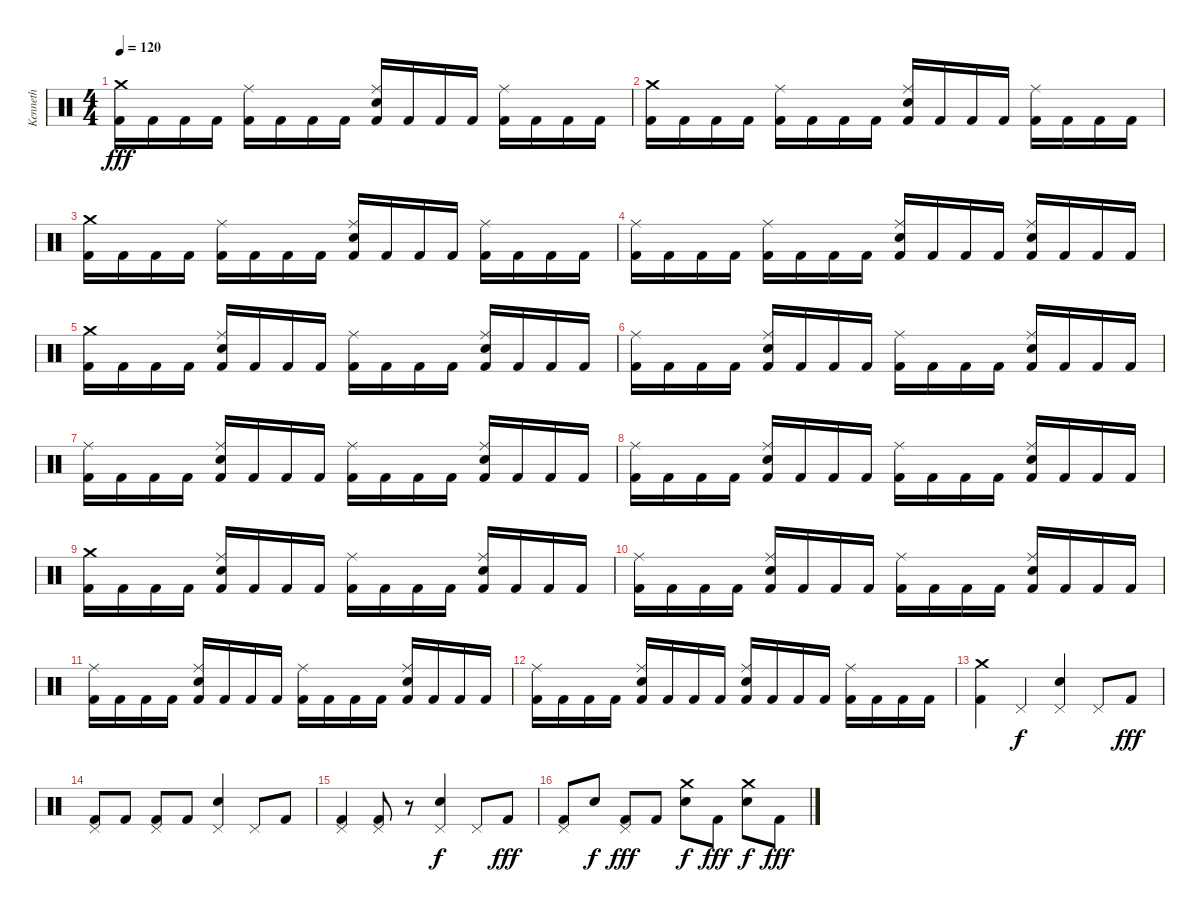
\track ("Kenneth" "Kenneth") {instrument percussion}
\staff {score}
\articulation defaults
\ts (4 4)
\tempo 120
\clef neutral
\ks c
("Crash medium (hit)" "Kick (hit) 2").16{dy fff} "Kick (hit) 2".16 "Kick (hit) 2".16 "Kick (hit) 2".16 ("Ride (middle)" "Kick (hit) 2").16 "Kick (hit) 2".16 "Kick (hit) 2".16 "Kick (hit) 2".16 ("Ride (middle)" "Electric Snare (hit)" "Kick (hit) 2").16 "Kick (hit) 2".16 "Kick (hit) 2".16 "Kick (hit) 2".16 ("Ride (middle)" "Kick (hit) 2").16 "Kick (hit) 2".16 "Kick (hit) 2".16 "Kick (hit) 2".16 |
("Crash medium (hit)" "Kick (hit) 2").16 "Kick (hit) 2".16 "Kick (hit) 2".16 "Kick (hit) 2".16 ("Ride (middle)" "Kick (hit) 2").16 "Kick (hit) 2".16 "Kick (hit) 2".16 "Kick (hit) 2".16 ("Ride (middle)" "Electric Snare (hit)" "Kick (hit) 2").16 "Kick (hit) 2".16 "Kick (hit) 2".16 "Kick (hit) 2".16 ("Ride (middle)" "Kick (hit) 2").16 "Kick (hit) 2".16 "Kick (hit) 2".16 "Kick (hit) 2".16 |
("Crash medium (hit)" "Kick (hit) 2").16 "Kick (hit) 2".16 "Kick (hit) 2".16 "Kick (hit) 2".16 ("Ride (middle)" "Kick (hit) 2").16 "Kick (hit) 2".16 "Kick (hit) 2".16 "Kick (hit) 2".16 ("Ride (middle)" "Electric Snare (hit)" "Kick (hit) 2").16 "Kick (hit) 2".16 "Kick (hit) 2".16 "Kick (hit) 2".16 ("Ride (middle)" "Kick (hit) 2").16 "Kick (hit) 2".16 "Kick (hit) 2".16 "Kick (hit) 2".16 |
("Ride (middle)" "Kick (hit) 2").16 "Kick (hit) 2".16 "Kick (hit) 2".16 "Kick (hit) 2".16 ("Ride (middle)" "Kick (hit) 2").16 "Kick (hit) 2".16 "Kick (hit) 2".16 "Kick (hit) 2".16 ("Ride (middle)" "Electric Snare (hit)" "Kick (hit) 2").16 "Kick (hit) 2".16 "Kick (hit) 2".16 "Kick (hit) 2".16 ("Ride (middle)" "Electric Snare (hit)" "Kick (hit) 2").16 "Kick (hit) 2".16 "Kick (hit) 2".16 "Kick (hit) 2".16 |
("Crash medium (hit)" "Kick (hit) 2").16 "Kick (hit) 2".16 "Kick (hit) 2".16 "Kick (hit) 2".16 ("Ride (middle)" "Electric Snare (hit)" "Kick (hit) 2").16 "Kick (hit) 2".16 "Kick (hit) 2".16 "Kick (hit) 2".16 ("Ride (middle)" "Kick (hit) 2").16 "Kick (hit) 2".16 "Kick (hit) 2".16 "Kick (hit) 2".16 ("Ride (middle)" "Electric Snare (hit)" "Kick (hit) 2").16 "Kick (hit) 2".16 "Kick (hit) 2".16 "Kick (hit) 2".16 |
("Ride (middle)" "Kick (hit) 2").16 "Kick (hit) 2".16 "Kick (hit) 2".16 "Kick (hit) 2".16 ("Ride (middle)" "Electric Snare (hit)" "Kick (hit) 2").16 "Kick (hit) 2".16 "Kick (hit) 2".16 "Kick (hit) 2".16 ("Ride (middle)" "Kick (hit) 2").16 "Kick (hit) 2".16 "Kick (hit) 2".16 "Kick (hit) 2".16 ("Ride (middle)" "Electric Snare (hit)" "Kick (hit) 2").16 "Kick (hit) 2".16 "Kick (hit) 2".16 "Kick (hit) 2".16 |
("Ride (middle)" "Kick (hit) 2").16 "Kick (hit) 2".16 "Kick (hit) 2".16 "Kick (hit) 2".16 ("Ride (middle)" "Electric Snare (hit)" "Kick (hit) 2").16 "Kick (hit) 2".16 "Kick (hit) 2".16 "Kick (hit) 2".16 ("Ride (middle)" "Kick (hit) 2").16 "Kick (hit) 2".16 "Kick (hit) 2".16 "Kick (hit) 2".16 ("Ride (middle)" "Electric Snare (hit)" "Kick (hit) 2").16 "Kick (hit) 2".16 "Kick (hit) 2".16 "Kick (hit) 2".16 |
("Ride (middle)" "Kick (hit) 2").16 "Kick (hit) 2".16 "Kick (hit) 2".16 "Kick (hit) 2".16 ("Ride (middle)" "Electric Snare (hit)" "Kick (hit) 2").16 "Kick (hit) 2".16 "Kick (hit) 2".16 "Kick (hit) 2".16 ("Ride (middle)" "Kick (hit) 2").16 "Kick (hit) 2".16 "Kick (hit) 2".16 "Kick (hit) 2".16 ("Ride (middle)" "Electric Snare (hit)" "Kick (hit) 2").16 "Kick (hit) 2".16 "Kick (hit) 2".16 "Kick (hit) 2".16 |
("Crash medium (hit)" "Kick (hit) 2").16 "Kick (hit) 2".16 "Kick (hit) 2".16 "Kick (hit) 2".16 ("Ride (middle)" "Electric Snare (hit)" "Kick (hit) 2").16 "Kick (hit) 2".16 "Kick (hit) 2".16 "Kick (hit) 2".16 ("Ride (middle)" "Kick (hit) 2").16 "Kick (hit) 2".16 "Kick (hit) 2".16 "Kick (hit) 2".16 ("Ride (middle)" "Electric Snare (hit)" "Kick (hit) 2").16 "Kick (hit) 2".16 "Kick (hit) 2".16 "Kick (hit) 2".16 |
("Ride (middle)" "Kick (hit) 2").16 "Kick (hit) 2".16 "Kick (hit) 2".16 "Kick (hit) 2".16 ("Ride (middle)" "Electric Snare (hit)" "Kick (hit) 2").16 "Kick (hit) 2".16 "Kick (hit) 2".16 "Kick (hit) 2".16 ("Ride (middle)" "Kick (hit) 2").16 "Kick (hit) 2".16 "Kick (hit) 2".16 "Kick (hit) 2".16 ("Ride (middle)" "Electric Snare (hit)" "Kick (hit) 2").16 "Kick (hit) 2".16 "Kick (hit) 2".16 "Kick (hit) 2".16 |
("Ride (middle)" "Kick (hit) 2").16 "Kick (hit) 2".16 "Kick (hit) 2".16 "Kick (hit) 2".16 ("Ride (middle)" "Electric Snare (hit)" "Kick (hit) 2").16 "Kick (hit) 2".16 "Kick (hit) 2".16 "Kick (hit) 2".16 ("Ride (middle)" "Kick (hit) 2").16 "Kick (hit) 2".16 "Kick (hit) 2".16 "Kick (hit) 2".16 ("Ride (middle)" "Electric Snare (hit)" "Kick (hit) 2").16 "Kick (hit) 2".16 "Kick (hit) 2".16 "Kick (hit) 2".16 |
("Ride (middle)" "Kick (hit) 2").16 "Kick (hit) 2".16 "Kick (hit) 2".16 "Kick (hit) 2".16 ("Ride (middle)" "Electric Snare (hit)" "Kick (hit) 2").16 "Kick (hit) 2".16 "Kick (hit) 2".16 "Kick (hit) 2".16 ("Ride (middle)" "Electric Snare (hit)" "Kick (hit) 2").16 "Kick (hit) 2".16 "Kick (hit) 2".16 "Kick (hit) 2".16 ("Ride (middle)" "Kick (hit) 2").16 "Kick (hit) 2".16 "Kick (hit) 2".16 "Kick (hit) 2".16 |
("Crash medium (hit)" "Kick (hit) 2").4 "Pedal Hi-Hat (hit)".4{dy f} ("Pedal Hi-Hat (hit)" "Electric Snare (hit)").4 "Pedal Hi-Hat (hit)".8 "Kick (hit) 2".8{dy fff} |
("Pedal Hi-Hat (hit)" "Kick (hit) 2").8 "Kick (hit) 2".8 ("Pedal Hi-Hat (hit)" "Kick (hit) 2").8 "Kick (hit) 2".8 ("Pedal Hi-Hat (hit)" "Electric Snare (hit)").4 "Pedal Hi-Hat (hit)".8 "Kick (hit) 2".8 |
("Pedal Hi-Hat (hit)" "Kick (hit) 2").4 ("Pedal Hi-Hat (hit)" "Kick (hit) 2").8 r.8 ("Pedal Hi-Hat (hit)" "Electric Snare (hit)").4{dy f} "Pedal Hi-Hat (hit)".8 "Kick (hit) 2".8{dy fff} |
("Pedal Hi-Hat (hit)" "Kick (hit) 2").8 "Electric Snare (hit)".8{dy f} ("Pedal Hi-Hat (hit)" "Kick (hit) 2").8{dy fff} "Kick (hit) 2".8 ("Crash medium (hit)" "Electric Snare (hit)").8{dy f} "Kick (hit) 2".8{dy fff} ("Crash medium (hit)" "Electric Snare (hit)").8{dy f} "Kick (hit) 2".8{dy fff}
